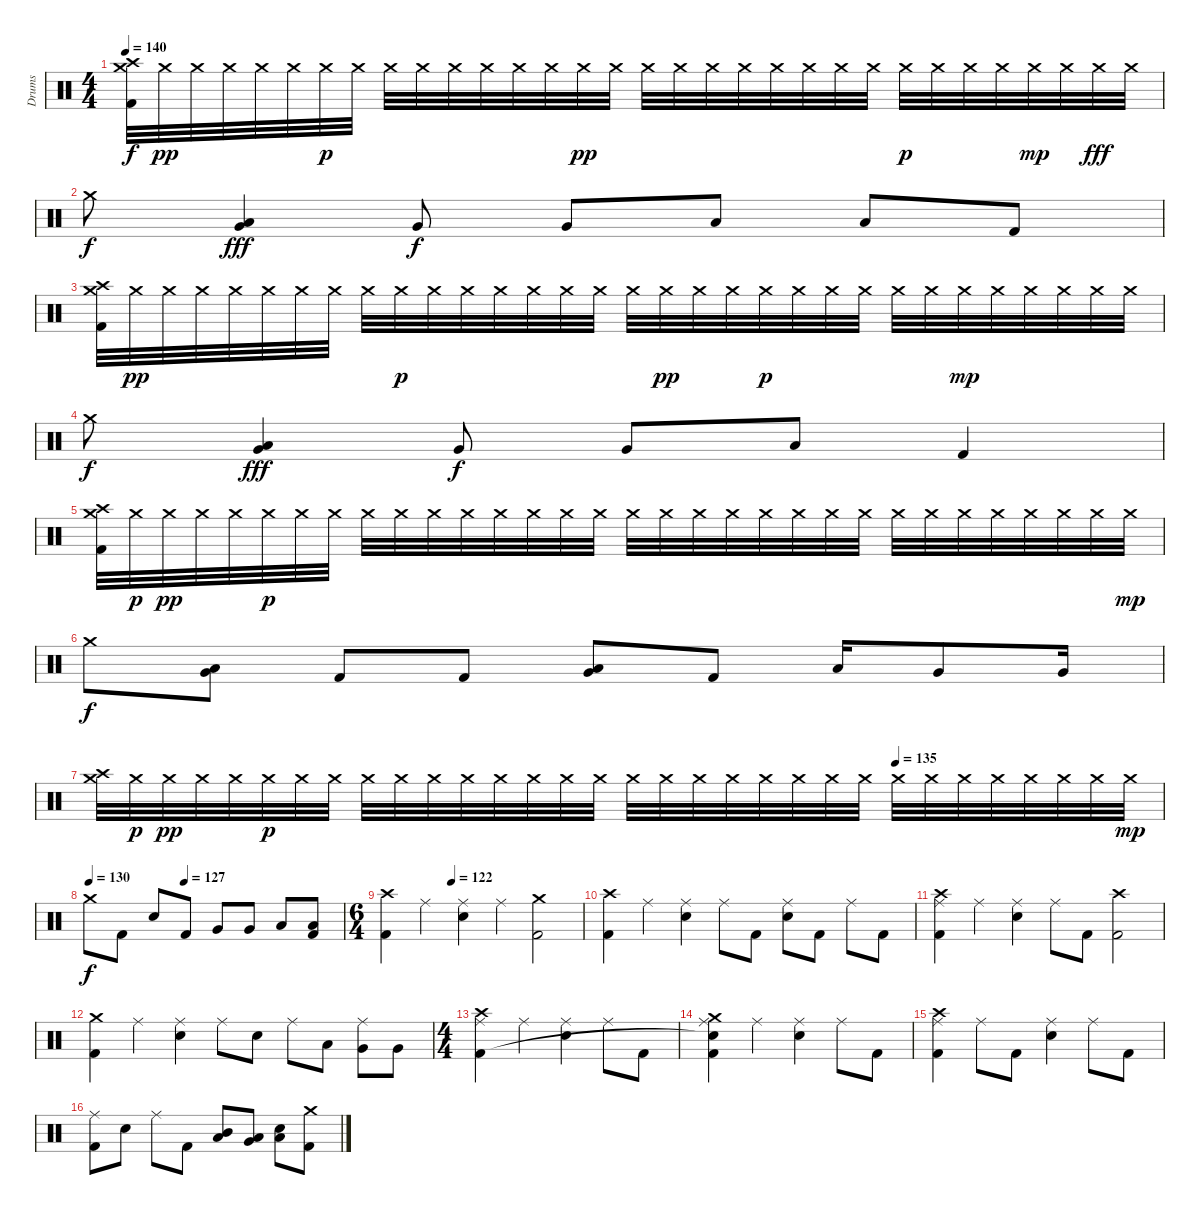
\track ("Drums" "Drums") {instrument percussion}
\staff {score}
\articulation defaults
\ts (4 4)
\tempo 140
\clef neutral
\ks c
("Crash medium (hit)" "Crash high (hit)" "Kick (hit) 2").32{dy f} "Crash medium (hit)".32{dy pp} "Crash medium (hit)".32 "Crash medium (hit)".32 "Crash medium (hit)".32 "Crash medium (hit)".32 "Crash medium (hit)".32{dy p} "Crash medium (hit)".32 "Crash medium (hit)".32 "Crash medium (hit)".32 "Crash medium (hit)".32 "Crash medium (hit)".32 "Crash medium (hit)".32 "Crash medium (hit)".32 "Crash medium (hit)".32{dy pp} "Crash medium (hit)".32 "Crash medium (hit)".32 "Crash medium (hit)".32 "Crash medium (hit)".32 "Crash medium (hit)".32 "Crash medium (hit)".32 "Crash medium (hit)".32 "Crash medium (hit)".32 "Crash medium (hit)".32 "Crash medium (hit)".32{dy p} "Crash medium (hit)".32 "Crash medium (hit)".32 "Crash medium (hit)".32 "Crash medium (hit)".32{dy mp} "Crash medium (hit)".32 "Crash medium (hit)".32{dy fff} "Crash medium (hit)".32 |
"Crash medium (hit)".8{dy f} ("Low Tom (hit)" "Very Low Tom (hit)").4{dy fff} "Very Low Tom (hit)".8{dy f} "Very Low Tom (hit)".8 "Low Floor Tom (hit)".8 "Low Floor Tom (hit)".8 "Kick (hit) 2".8 |
("Crash high (hit)" "Crash medium (hit)" "Kick (hit) 2").32 "Crash medium (hit)".32{dy pp} "Crash medium (hit)".32 "Crash medium (hit)".32 "Crash medium (hit)".32 "Crash medium (hit)".32 "Crash medium (hit)".32 "Crash medium (hit)".32 "Crash medium (hit)".32 "Crash medium (hit)".32{dy p} "Crash medium (hit)".32 "Crash medium (hit)".32 "Crash medium (hit)".32 "Crash medium (hit)".32 "Crash medium (hit)".32 "Crash medium (hit)".32 "Crash medium (hit)".32 "Crash medium (hit)".32{dy pp} "Crash medium (hit)".32 "Crash medium (hit)".32 "Crash medium (hit)".32{dy p} "Crash medium (hit)".32 "Crash medium (hit)".32 "Crash medium (hit)".32 "Crash medium (hit)".32 "Crash medium (hit)".32 "Crash medium (hit)".32{dy mp} "Crash medium (hit)".32 "Crash medium (hit)".32 "Crash medium (hit)".32 "Crash medium (hit)".32 "Crash medium (hit)".32 |
"Crash medium (hit)".8{dy f} ("Low Tom (hit)" "Very Low Tom (hit)").4{dy fff} "Very Low Tom (hit)".8{dy f} "Very Low Tom (hit)".8 "Low Floor Tom (hit)".8 "Kick (hit) 2".4 |
("Crash medium (hit)" "Crash high (hit)" "Kick (hit) 2").32 "Crash medium (hit)".32{dy p} "Crash medium (hit)".32{dy pp} "Crash medium (hit)".32 "Crash medium (hit)".32 "Crash medium (hit)".32{dy p} "Crash medium (hit)".32 "Crash medium (hit)".32 "Crash medium (hit)".32 "Crash medium (hit)".32 "Crash medium (hit)".32 "Crash medium (hit)".32 "Crash medium (hit)".32 "Crash medium (hit)".32 "Crash medium (hit)".32 "Crash medium (hit)".32 "Crash medium (hit)".32 "Crash medium (hit)".32 "Crash medium (hit)".32 "Crash medium (hit)".32 "Crash medium (hit)".32 "Crash medium (hit)".32 "Crash medium (hit)".32 "Crash medium (hit)".32 "Crash medium (hit)".32 "Crash medium (hit)".32 "Crash medium (hit)".32 "Crash medium (hit)".32 "Crash medium (hit)".32 "Crash medium (hit)".32 "Crash medium (hit)".32 "Crash medium (hit)".32{dy mp} |
"Crash medium (hit)".8{dy f} ("Low Tom (hit)" "Very Low Tom (hit)").8 "Kick (hit) 2".8 "Kick (hit) 2".8 ("Very Low Tom (hit)" "Low Floor Tom (hit)").8 "Kick (hit) 2".8 "Low Floor Tom (hit)".16 "Very Low Tom (hit)".8 "Very Low Tom (hit)".16 |
\tempo (135 0.75)
("Crash medium (hit)" "Crash high (hit)").32 "Crash medium (hit)".32{dy p} "Crash medium (hit)".32{dy pp} "Crash medium (hit)".32 "Crash medium (hit)".32 "Crash medium (hit)".32{dy p} "Crash medium (hit)".32 "Crash medium (hit)".32 "Crash medium (hit)".32 "Crash medium (hit)".32 "Crash medium (hit)".32 "Crash medium (hit)".32 "Crash medium (hit)".32 "Crash medium (hit)".32 "Crash medium (hit)".32 "Crash medium (hit)".32 "Crash medium (hit)".32 "Crash medium (hit)".32 "Crash medium (hit)".32 "Crash medium (hit)".32 "Crash medium (hit)".32 "Crash medium (hit)".32 "Crash medium (hit)".32 "Crash medium (hit)".32 "Crash medium (hit)".32 "Crash medium (hit)".32 "Crash medium (hit)".32 "Crash medium (hit)".32 "Crash medium (hit)".32 "Crash medium (hit)".32 "Crash medium (hit)".32 "Crash medium (hit)".32{dy mp} |
\tempo 130
\tempo (127 0.375)
"Crash medium (hit)".8{dy f} "Kick (hit) 2".8 "Electric Snare (hit)".8 "Kick (hit) 2".8 "Very Low Tom (hit)".8 "Very Low Tom (hit)".8 "Low Floor Tom (hit)".8 ("Low Floor Tom (hit)" "Kick (hit) 2").8 |
\ts (6 4)
\tempo (122 0.3333333333333333)
("Crash high (hit)" "Kick (hit) 2").4 "Ride (middle)".4 ("Ride (middle)" "Electric Snare (hit)").4 "Ride (middle)".4 ("Crash medium (hit)" "Kick (hit) 2").2 |
("Crash high (hit)" "Kick (hit) 2").4 "Ride (middle)".4 ("Ride (middle)" "Electric Snare (hit)").4 "Ride (middle)".8 "Kick (hit) 2".8 ("Ride (middle)" "Electric Snare (hit)").8 "Kick (hit) 2".8 "Ride (middle)".8 "Kick (hit) 2".8 |
("Crash high (hit)" "Ride (middle)" "Kick (hit) 2").4 "Ride (middle)".4 ("Ride (middle)" "Electric Snare (hit)").4 "Ride (middle)".8 "Kick (hit) 2".8 ("Crash high (hit)" "Kick (hit) 2").2 |
("Crash medium (hit)" "Kick (hit) 2").4 "Ride (middle)".4 ("Ride (middle)" "Electric Snare (hit)").4 "Ride (middle)".8 "Electric Snare (hit)".8 "Ride (middle)".8 "Low Floor Tom (hit)".8 ("Ride (middle)" "Very Low Tom (hit)").8 "Very Low Tom (hit)".8 |
\ts (4 4)
("Crash high (hit)" "Ride (middle)" "Kick (hit) 2").4 "Ride (middle)".4 ("Ride (middle)" "Electric Snare (hit)").4 "Ride (middle)".8 "Kick (hit) 2".8 |
("Crash medium (hit)" "Ride (middle)" "Snare (hit)"{t} "Kick (hit) 2").4 "Ride (middle)".4 ("Ride (middle)" "Electric Snare (hit)").4 "Ride (middle)".8 "Kick (hit) 2".8 |
("Crash high (hit)" "Ride (middle)" "Kick (hit) 2").4 "Ride (middle)".8 "Kick (hit) 2".8 ("Ride (middle)" "Electric Snare (hit)").4 "Ride (middle)".8 "Kick (hit) 2".8 |
("Ride (middle)" "Kick (hit) 2").8 "Electric Snare (hit)".8 "Ride (middle)".8 "Kick (hit) 2".8 ("Mid Tom (hit)" "Low Tom (hit)").8 ("Low Tom (hit)" "Very Low Tom (hit)").8 ("Low Floor Tom (hit)" "Electric Snare (hit)").8 ("Crash medium (hit)" "Kick (hit) 2").8
